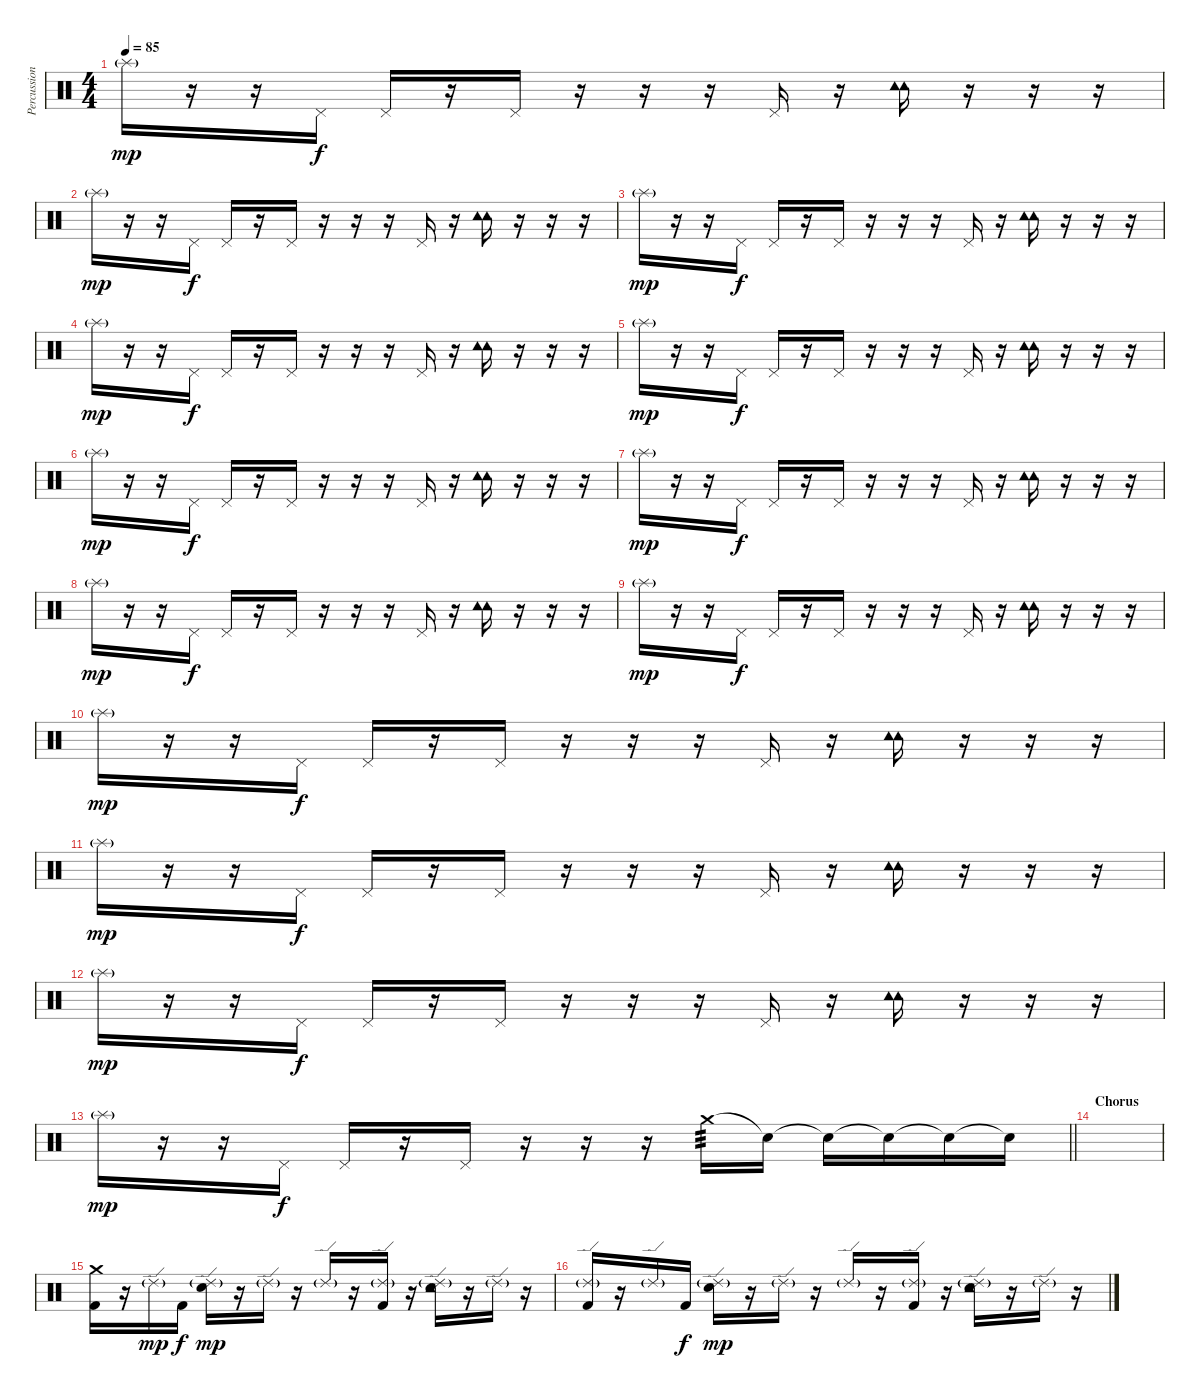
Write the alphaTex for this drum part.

\track ("Percussion" "Percussion") {instrument percussion}
\staff {score}
\articulation defaults
\ts (4 4)
\tempo 85
\clef neutral
\ks c "Splash (hit)"{g}.16{dy mp}
r.16 r.16 "Pedal Hi-Hat (hit)".16{dy f} "Pedal Hi-Hat (hit)".16 r.16 "Pedal Hi-Hat (hit)".16 r.16 r.16 r.16 "Pedal Hi-Hat (hit)".16 r.16 ("Tambourine (hit)" "Tambourine (hit)").16 r.16 r.16 r.16 |
"Splash (hit)"{g}.16{dy mp} r.16 r.16 "Pedal Hi-Hat (hit)".16{dy f} "Pedal Hi-Hat (hit)".16 r.16 "Pedal Hi-Hat (hit)".16 r.16 r.16 r.16 "Pedal Hi-Hat (hit)".16 r.16 ("Tambourine (hit)" "Tambourine (hit)").16 r.16 r.16 r.16 |
"Splash (hit)"{g}.16{dy mp} r.16 r.16 "Pedal Hi-Hat (hit)".16{dy f} "Pedal Hi-Hat (hit)".16 r.16 "Pedal Hi-Hat (hit)".16 r.16 r.16 r.16 "Pedal Hi-Hat (hit)".16 r.16 ("Tambourine (hit)" "Tambourine (hit)").16 r.16 r.16 r.16 |
"Splash (hit)"{g}.16{dy mp} r.16 r.16 "Pedal Hi-Hat (hit)".16{dy f} "Pedal Hi-Hat (hit)".16 r.16 "Pedal Hi-Hat (hit)".16 r.16 r.16 r.16 "Pedal Hi-Hat (hit)".16 r.16 ("Tambourine (hit)" "Tambourine (hit)").16 r.16 r.16 r.16 |
"Splash (hit)"{g}.16{dy mp} r.16 r.16 "Pedal Hi-Hat (hit)".16{dy f} "Pedal Hi-Hat (hit)".16 r.16 "Pedal Hi-Hat (hit)".16 r.16 r.16 r.16 "Pedal Hi-Hat (hit)".16 r.16 ("Tambourine (hit)" "Tambourine (hit)").16 r.16 r.16 r.16 |
"Splash (hit)"{g}.16{dy mp} r.16 r.16 "Pedal Hi-Hat (hit)".16{dy f} "Pedal Hi-Hat (hit)".16 r.16 "Pedal Hi-Hat (hit)".16 r.16 r.16 r.16 "Pedal Hi-Hat (hit)".16 r.16 ("Tambourine (hit)" "Tambourine (hit)").16 r.16 r.16 r.16 |
"Splash (hit)"{g}.16{dy mp} r.16 r.16 "Pedal Hi-Hat (hit)".16{dy f} "Pedal Hi-Hat (hit)".16 r.16 "Pedal Hi-Hat (hit)".16 r.16 r.16 r.16 "Pedal Hi-Hat (hit)".16 r.16 ("Tambourine (hit)" "Tambourine (hit)").16 r.16 r.16 r.16 |
"Splash (hit)"{g}.16{dy mp} r.16 r.16 "Pedal Hi-Hat (hit)".16{dy f} "Pedal Hi-Hat (hit)".16 r.16 "Pedal Hi-Hat (hit)".16 r.16 r.16 r.16 "Pedal Hi-Hat (hit)".16 r.16 ("Tambourine (hit)" "Tambourine (hit)").16 r.16 r.16 r.16 |
"Splash (hit)"{g}.16{dy mp} r.16 r.16 "Pedal Hi-Hat (hit)".16{dy f} "Pedal Hi-Hat (hit)".16 r.16 "Pedal Hi-Hat (hit)".16 r.16 r.16 r.16 "Pedal Hi-Hat (hit)".16 r.16 ("Tambourine (hit)" "Tambourine (hit)").16 r.16 r.16 r.16 |
"Splash (hit)"{g}.16{dy mp} r.16 r.16 "Pedal Hi-Hat (hit)".16{dy f} "Pedal Hi-Hat (hit)".16 r.16 "Pedal Hi-Hat (hit)".16 r.16 r.16 r.16 "Pedal Hi-Hat (hit)".16 r.16 ("Tambourine (hit)" "Tambourine (hit)").16 r.16 r.16 r.16 |
"Splash (hit)"{g}.16{dy mp} r.16 r.16 "Pedal Hi-Hat (hit)".16{dy f} "Pedal Hi-Hat (hit)".16 r.16 "Pedal Hi-Hat (hit)".16 r.16 r.16 r.16 "Pedal Hi-Hat (hit)".16 r.16 ("Tambourine (hit)" "Tambourine (hit)").16 r.16 r.16 r.16 |
"Splash (hit)"{g}.16{dy mp} r.16 r.16 "Pedal Hi-Hat (hit)".16{dy f} "Pedal Hi-Hat (hit)".16 r.16 "Pedal Hi-Hat (hit)".16 r.16 r.16 r.16 "Pedal Hi-Hat (hit)".16 r.16 ("Tambourine (hit)" "Tambourine (hit)").16 r.16 r.16 r.16 |
\barLineRight lightlight "Splash (hit)"{g}.16{dy mp}
r.16 r.16 "Pedal Hi-Hat (hit)".16{dy f} "Pedal Hi-Hat (hit)".16 r.16 "Pedal Hi-Hat (hit)".16 r.16 r.16{volume 7} r.16 "Crash medium (hit)".16{tp 3 volume 16} "Snare (hit)"{t}.16 "Snare (hit)"{t}.16 "Snare (hit)"{t}.16 "Snare (hit)"{t}.16 "Snare (hit)"{t}.16 |
\section ("" "Chorus")
|
("Crash medium (hit)" "Kick (hit) 2").16 r.16 "Ride (edge) 2"{g}.16{dy mp} "Kick (hit) 2".16{dy f} ("Ride (edge) 2"{g} "Electric Snare (hit)").16{dy mp} r.16 "Ride (edge) 2"{g}.16 r.16 "Ride (edge) 2"{g}.16 r.16 ("Ride (edge) 2"{g} "Kick (hit) 2").16 r.16 ("Tambourine (hit)" "Ride (edge) 2"{g} "Electric Snare (hit)").16 r.16 "Ride (edge) 2"{g}.16 r.16 |
("Ride (edge) 2"{g} "Kick (hit) 2").16 r.16 "Ride (edge) 2"{g}.16 "Kick (hit) 2".16{dy f} ("Ride (edge) 2"{g} "Electric Snare (hit)").16{dy mp} r.16 "Ride (edge) 2"{g}.16 r.16 "Ride (edge) 2"{g}.16 r.16 ("Ride (edge) 2"{g} "Kick (hit) 2").16 r.16 ("Tambourine (hit)" "Ride (edge) 2"{g} "Electric Snare (hit)").16 r.16 "Ride (edge) 2"{g}.16 r.16
